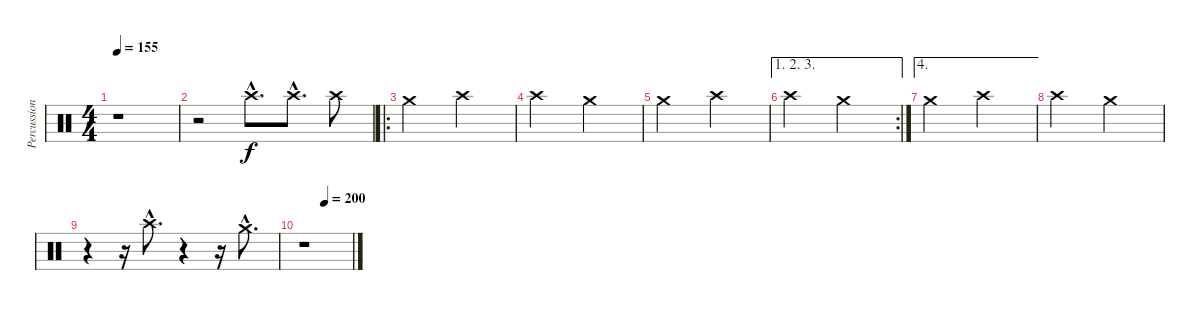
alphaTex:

\track ("Percussion" "Percussion") {instrument percussion}
\staff {score}
\articulation defaults
\ts (4 4)
\tempo 155
\clef neutral
\ks c
r.1{dy f} |
r.2 "Crash high (hit)"{hac}.8{d} "Crash high (hit)"{hac}.8{d} "Crash high (hit)".8 |
\ro "Crash medium (hit)".2 "Crash high (hit)".2
|
"Crash high (hit)".2 "Crash medium (hit)".2 |
"Crash medium (hit)".2 "Crash high (hit)".2 |
\ae (1 2 3)
\rc 2 "Crash high (hit)".2 "Crash medium (hit)".2
|
\ae 4 "Crash medium (hit)".2 "Crash high (hit)".2
|
"Crash high (hit)".2 "Crash medium (hit)".2 |
r.4 r.16 "Crash high (hit)"{hac}.8{d} r.4 r.16 "Crash medium (hit)"{hac}.8{d} |
\tempo (200 0.4375)
r.1
